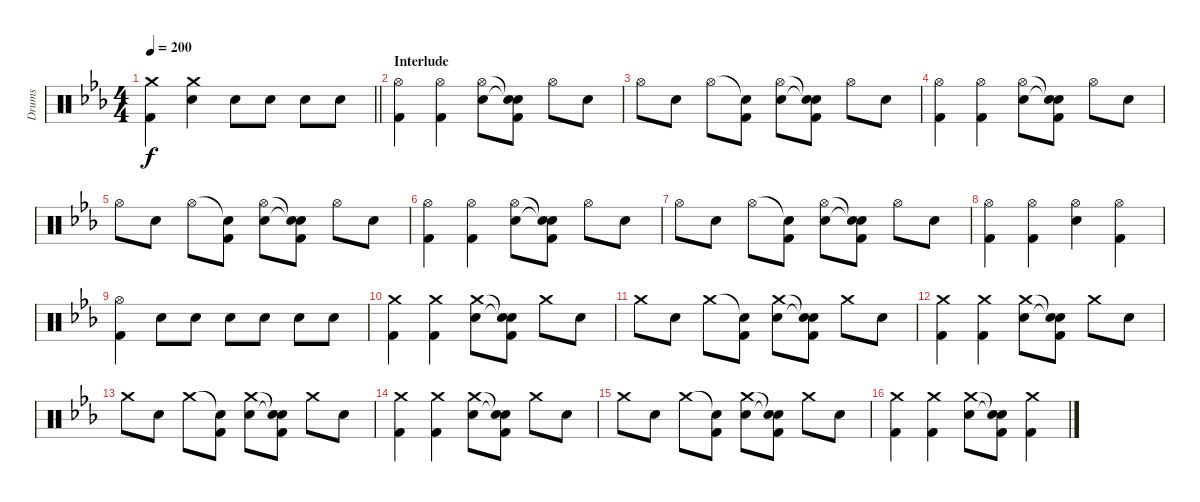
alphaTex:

\track ("Drums" "Drums") {instrument percussion}
\staff {score}
\articulation defaults
\ts (4 4)
\tempo 200
\clef neutral
\barLineRight lightlight
\ks cminor
("Crash medium (hit)" "Kick (hit) 2").4{dy f} ("Crash medium (hit)" "Electric Snare (hit)").4 "Electric Snare (hit)".8 "Electric Snare (hit)".8 "Electric Snare (hit)".8 "Electric Snare (hit)".8 |
\section ("" "Interlude")
("Hi-Hat (open)" "Kick (hit) 2").4 ("Hi-Hat (open)" "Kick (hit) 2").4 ("Hi-Hat (open)" "Electric Snare (hit)").8 ("Snare (hit)"{t} "Snare (hit)"{t} "Kick (hit) 2").8 "Hi-Hat (open)".8 "Electric Snare (hit)".8 |
"Hi-Hat (open)".8 "Electric Snare (hit)".8 "Hi-Hat (open)".8 ("Snare (hit)"{t} "Kick (hit) 2").8 ("Hi-Hat (open)" "Electric Snare (hit)").8 ("Snare (hit)"{t} "Snare (hit)"{t} "Kick (hit) 2").8 "Hi-Hat (open)".8 "Electric Snare (hit)".8 |
("Hi-Hat (open)" "Kick (hit) 2").4 ("Hi-Hat (open)" "Kick (hit) 2").4 ("Hi-Hat (open)" "Electric Snare (hit)").8 ("Snare (hit)"{t} "Snare (hit)"{t} "Kick (hit) 2").8 "Hi-Hat (open)".8 "Electric Snare (hit)".8 |
"Hi-Hat (open)".8 "Electric Snare (hit)".8 "Hi-Hat (open)".8 ("Snare (hit)"{t} "Kick (hit) 2").8 ("Hi-Hat (open)" "Electric Snare (hit)").8 ("Snare (hit)"{t} "Snare (hit)"{t} "Kick (hit) 2").8 "Hi-Hat (open)".8 "Electric Snare (hit)".8 |
("Hi-Hat (open)" "Kick (hit) 2").4 ("Hi-Hat (open)" "Kick (hit) 2").4 ("Hi-Hat (open)" "Electric Snare (hit)").8 ("Snare (hit)"{t} "Snare (hit)"{t} "Kick (hit) 2").8 "Hi-Hat (open)".8 "Electric Snare (hit)".8 |
"Hi-Hat (open)".8 "Electric Snare (hit)".8 "Hi-Hat (open)".8 ("Snare (hit)"{t} "Kick (hit) 2").8 ("Hi-Hat (open)" "Electric Snare (hit)").8 ("Snare (hit)"{t} "Snare (hit)"{t} "Kick (hit) 2").8 "Hi-Hat (open)".8 "Electric Snare (hit)".8 |
("Hi-Hat (open)" "Kick (hit) 2").4 ("Hi-Hat (open)" "Kick (hit) 2").4 ("Hi-Hat (open)" "Electric Snare (hit)").4 ("Hi-Hat (open)" "Kick (hit) 2").4 |
("Hi-Hat (open)" "Kick (hit) 2").4 "Electric Snare (hit)".8 "Electric Snare (hit)".8 "Electric Snare (hit)".8 "Electric Snare (hit)".8 "Electric Snare (hit)".8 "Electric Snare (hit)".8 |
("Crash medium (hit)" "Kick (hit) 2").4 ("Crash medium (hit)" "Kick (hit) 2").4 ("Crash medium (hit)" "Electric Snare (hit)").8 ("Snare (hit)"{t} "Snare (hit)"{t} "Kick (hit) 2").8 "Crash medium (hit)".8 "Electric Snare (hit)".8 |
"Crash medium (hit)".8 "Electric Snare (hit)".8 "Crash medium (hit)".8 ("Snare (hit)"{t} "Kick (hit) 2").8 ("Crash medium (hit)" "Electric Snare (hit)").8 ("Snare (hit)"{t} "Snare (hit)"{t} "Kick (hit) 2").8 "Crash medium (hit)".8 "Electric Snare (hit)".8 |
("Crash medium (hit)" "Kick (hit) 2").4 ("Crash medium (hit)" "Kick (hit) 2").4 ("Crash medium (hit)" "Electric Snare (hit)").8 ("Snare (hit)"{t} "Snare (hit)"{t} "Kick (hit) 2").8 "Crash medium (hit)".8 "Electric Snare (hit)".8 |
"Crash medium (hit)".8 "Electric Snare (hit)".8 "Crash medium (hit)".8 ("Snare (hit)"{t} "Kick (hit) 2").8 ("Crash medium (hit)" "Electric Snare (hit)").8 ("Snare (hit)"{t} "Snare (hit)"{t} "Kick (hit) 2").8 "Crash medium (hit)".8 "Electric Snare (hit)".8 |
("Crash medium (hit)" "Kick (hit) 2").4 ("Crash medium (hit)" "Kick (hit) 2").4 ("Crash medium (hit)" "Electric Snare (hit)").8 ("Snare (hit)"{t} "Snare (hit)"{t} "Kick (hit) 2").8 "Crash medium (hit)".8 "Electric Snare (hit)".8 |
"Crash medium (hit)".8 "Electric Snare (hit)".8 "Crash medium (hit)".8 ("Snare (hit)"{t} "Kick (hit) 2").8 ("Crash medium (hit)" "Electric Snare (hit)").8 ("Snare (hit)"{t} "Snare (hit)"{t} "Kick (hit) 2").8 "Crash medium (hit)".8 "Electric Snare (hit)".8 |
("Crash medium (hit)" "Kick (hit) 2").4 ("Crash medium (hit)" "Kick (hit) 2").4 ("Crash medium (hit)" "Electric Snare (hit)").8 ("Snare (hit)"{t} "Snare (hit)"{t} "Kick (hit) 2").8 ("Crash medium (hit)" "Kick (hit) 2").4
